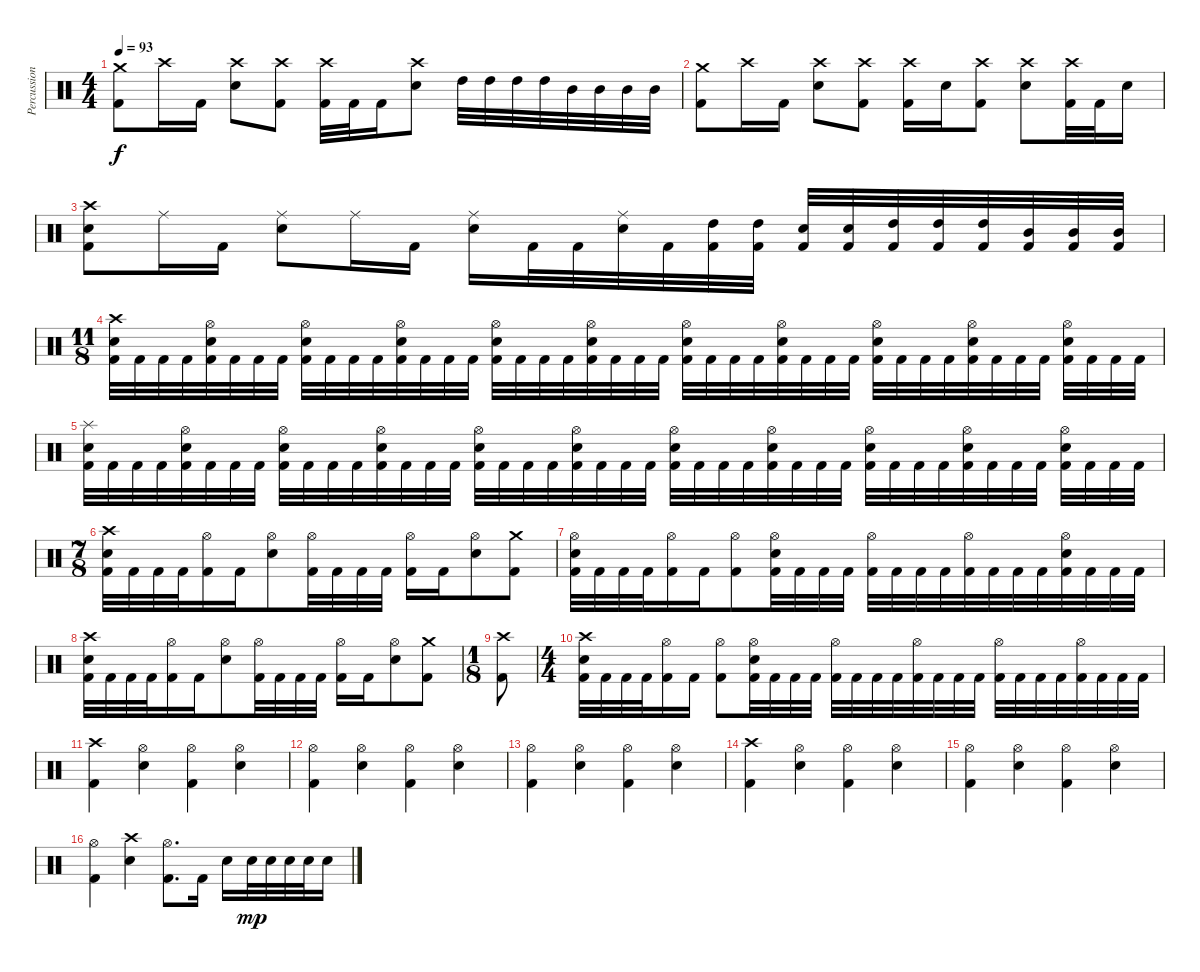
\track ("Percussions" "Percussion") {instrument percussion}
\staff {score}
\articulation defaults
\ts (4 4)
\tempo 93
\clef neutral
\ks c
("Crash medium (hit)" "Kick (hit) 2").8{dy f} "Crash high (hit)".16 "Kick (hit) 2".16 ("Crash high (hit)" "Electric Snare (hit)").8 ("Crash high (hit)" "Kick (hit) 2").8 ("Crash high (hit)" "Kick (hit) 2").32 "Kick (hit) 2".32 "Kick (hit) 2".16 ("Crash high (hit)" "Electric Snare (hit)").8 "High Tom (hit)".32 "High Tom (hit)".32 "High Tom (hit)".32 "High Tom (hit)".32 "Mid Tom (hit)".32 "Mid Tom (hit)".32 "Mid Tom (hit)".32 "Mid Tom (hit)".32 |
("Crash medium (hit)" "Kick (hit) 2").8 "Crash high (hit)".16 "Kick (hit) 2".16 ("Crash high (hit)" "Electric Snare (hit)").8 ("Crash high (hit)" "Kick (hit) 2").8 ("Crash high (hit)" "Kick (hit) 2").16 "Electric Snare (hit)".16 ("Crash high (hit)" "Kick (hit) 2").8 ("Crash high (hit)" "Electric Snare (hit)").8 ("Crash high (hit)" "Kick (hit) 2").32 "Kick (hit) 2".32 "Electric Snare (hit)".16 |
("Crash high (hit)" "Electric Snare (hit)" "Kick (hit) 2").8 "Ride (middle)".16 "Kick (hit) 2".16 ("Ride (middle)" "Electric Snare (hit)").8 "Ride (middle)".16 "Kick (hit) 2".16 ("Ride (middle)" "Electric Snare (hit)").16 "Kick (hit) 2".32 "Kick (hit) 2".32 ("Ride (middle)" "Electric Snare (hit)").32 "Kick (hit) 2".32 ("High Tom (hit)" "Kick (hit) 2").32 ("High Tom (hit)" "Kick (hit) 2").32 ("Electric Snare (hit)" "Kick (hit) 2").32 ("Electric Snare (hit)" "Kick (hit) 2").32 ("High Tom (hit)" "Kick (hit) 2").32 ("High Tom (hit)" "Kick (hit) 2").32 ("High Tom (hit)" "Kick (hit) 2").32 ("Mid Tom (hit)" "Kick (hit) 2").32 ("Mid Tom (hit)" "Kick (hit) 2").32 ("Mid Tom (hit)" "Kick (hit) 2").32 |
\ts (11 8)
("Crash high (hit)" "Electric Snare (hit)" "Kick (hit) 2").32 "Kick (hit) 2".32 "Kick (hit) 2".32 "Kick (hit) 2".32 ("Hi-Hat (open)" "Electric Snare (hit)" "Kick (hit) 2").32 "Kick (hit) 2".32 "Kick (hit) 2".32 "Kick (hit) 2".32 ("Hi-Hat (open)" "Electric Snare (hit)" "Kick (hit) 2").32 "Kick (hit) 2".32 "Kick (hit) 2".32 "Kick (hit) 2".32 ("Hi-Hat (open)" "Electric Snare (hit)" "Kick (hit) 2").32 "Kick (hit) 2".32 "Kick (hit) 2".32 "Kick (hit) 2".32 ("Hi-Hat (open)" "Electric Snare (hit)" "Kick (hit) 2").32 "Kick (hit) 2".32 "Kick (hit) 2".32 "Kick (hit) 2".32 ("Hi-Hat (open)" "Electric Snare (hit)" "Kick (hit) 2").32 "Kick (hit) 2".32 "Kick (hit) 2".32 "Kick (hit) 2".32 ("Hi-Hat (open)" "Electric Snare (hit)" "Kick (hit) 2").32 "Kick (hit) 2".32 "Kick (hit) 2".32 "Kick (hit) 2".32 ("Hi-Hat (open)" "Electric Snare (hit)" "Kick (hit) 2").32 "Kick (hit) 2".32 "Kick (hit) 2".32 "Kick (hit) 2".32 ("Hi-Hat (open)" "Electric Snare (hit)" "Kick (hit) 2").32 "Kick (hit) 2".32 "Kick (hit) 2".32 "Kick (hit) 2".32 ("Hi-Hat (open)" "Electric Snare (hit)" "Kick (hit) 2").32 "Kick (hit) 2".32 "Kick (hit) 2".32 "Kick (hit) 2".32 ("Hi-Hat (open)" "Electric Snare (hit)" "Kick (hit) 2").32 "Kick (hit) 2".32 "Kick (hit) 2".32 "Kick (hit) 2".32 |
("Splash (hit)" "Electric Snare (hit)" "Kick (hit) 2").32 "Kick (hit) 2".32 "Kick (hit) 2".32 "Kick (hit) 2".32 ("Hi-Hat (open)" "Electric Snare (hit)" "Kick (hit) 2").32 "Kick (hit) 2".32 "Kick (hit) 2".32 "Kick (hit) 2".32 ("Hi-Hat (open)" "Electric Snare (hit)" "Kick (hit) 2").32 "Kick (hit) 2".32 "Kick (hit) 2".32 "Kick (hit) 2".32 ("Hi-Hat (open)" "Electric Snare (hit)" "Kick (hit) 2").32 "Kick (hit) 2".32 "Kick (hit) 2".32 "Kick (hit) 2".32 ("Hi-Hat (open)" "Electric Snare (hit)" "Kick (hit) 2").32 "Kick (hit) 2".32 "Kick (hit) 2".32 "Kick (hit) 2".32 ("Hi-Hat (open)" "Electric Snare (hit)" "Kick (hit) 2").32 "Kick (hit) 2".32 "Kick (hit) 2".32 "Kick (hit) 2".32 ("Hi-Hat (open)" "Electric Snare (hit)" "Kick (hit) 2").32 "Kick (hit) 2".32 "Kick (hit) 2".32 "Kick (hit) 2".32 ("Hi-Hat (open)" "Electric Snare (hit)" "Kick (hit) 2").32 "Kick (hit) 2".32 "Kick (hit) 2".32 "Kick (hit) 2".32 ("Hi-Hat (open)" "Electric Snare (hit)" "Kick (hit) 2").32 "Kick (hit) 2".32 "Kick (hit) 2".32 "Kick (hit) 2".32 ("Hi-Hat (open)" "Electric Snare (hit)" "Kick (hit) 2").32 "Kick (hit) 2".32 "Kick (hit) 2".32 "Kick (hit) 2".32 ("Hi-Hat (open)" "Electric Snare (hit)" "Kick (hit) 2").32 "Kick (hit) 2".32 "Kick (hit) 2".32 "Kick (hit) 2".32 |
\ts (7 8)
("Crash high (hit)" "Electric Snare (hit)" "Kick (hit) 2").32 "Kick (hit) 2".32 "Kick (hit) 2".32 "Kick (hit) 2".32 ("Hi-Hat (open)" "Kick (hit) 2").16 "Kick (hit) 2".16 ("Hi-Hat (open)" "Electric Snare (hit)").8 ("Hi-Hat (open)" "Kick (hit) 2").32 "Kick (hit) 2".32 "Kick (hit) 2".32 "Kick (hit) 2".32 ("Hi-Hat (open)" "Kick (hit) 2").16 "Kick (hit) 2".16 ("Hi-Hat (open)" "Electric Snare (hit)").8 ("Crash medium (hit)" "Kick (hit) 2").8 |
("Hi-Hat (open)" "Electric Snare (hit)" "Kick (hit) 2").32 "Kick (hit) 2".32 "Kick (hit) 2".32 "Kick (hit) 2".32 ("Hi-Hat (open)" "Kick (hit) 2").16 "Kick (hit) 2".16 ("Hi-Hat (open)" "Kick (hit) 2").8 ("Hi-Hat (open)" "Electric Snare (hit)" "Kick (hit) 2").32 "Kick (hit) 2".32 "Kick (hit) 2".32 "Kick (hit) 2".32 ("Hi-Hat (open)" "Kick (hit) 2").32 "Kick (hit) 2".32 "Kick (hit) 2".32 "Kick (hit) 2".32 ("Hi-Hat (open)" "Kick (hit) 2").32 "Kick (hit) 2".32 "Kick (hit) 2".32 "Kick (hit) 2".32 ("Hi-Hat (open)" "Electric Snare (hit)" "Kick (hit) 2").32 "Kick (hit) 2".32 "Kick (hit) 2".32 "Kick (hit) 2".32 |
("Crash high (hit)" "Electric Snare (hit)" "Kick (hit) 2").32 "Kick (hit) 2".32 "Kick (hit) 2".32 "Kick (hit) 2".32 ("Hi-Hat (open)" "Kick (hit) 2").16 "Kick (hit) 2".16 ("Hi-Hat (open)" "Electric Snare (hit)").8 ("Hi-Hat (open)" "Kick (hit) 2").32 "Kick (hit) 2".32 "Kick (hit) 2".32 "Kick (hit) 2".32 ("Hi-Hat (open)" "Kick (hit) 2").16 "Kick (hit) 2".16 ("Hi-Hat (open)" "Electric Snare (hit)").8 ("Crash medium (hit)" "Kick (hit) 2").8 |
\ts (1 8)
("Crash high (hit)" "Kick (hit) 2").8 |
\ts (4 4)
("Crash high (hit)" "Electric Snare (hit)" "Kick (hit) 2").32 "Kick (hit) 2".32 "Kick (hit) 2".32 "Kick (hit) 2".32 ("Hi-Hat (open)" "Kick (hit) 2").16 "Kick (hit) 2".16 ("Hi-Hat (open)" "Kick (hit) 2").8 ("Hi-Hat (open)" "Electric Snare (hit)" "Kick (hit) 2").32 "Kick (hit) 2".32 "Kick (hit) 2".32 "Kick (hit) 2".32 ("Hi-Hat (open)" "Kick (hit) 2").32 "Kick (hit) 2".32 "Kick (hit) 2".32 "Kick (hit) 2".32 ("Hi-Hat (open)" "Kick (hit) 2").32 "Kick (hit) 2".32 "Kick (hit) 2".32 "Kick (hit) 2".32 ("Hi-Hat (open)" "Kick (hit) 2").32 "Kick (hit) 2".32 "Kick (hit) 2".32 "Kick (hit) 2".32 ("Hi-Hat (open)" "Kick (hit) 2").32 "Kick (hit) 2".32 "Kick (hit) 2".32 "Kick (hit) 2".32 |
("Crash high (hit)" "Kick (hit) 2").4 ("Hi-Hat (open)" "Electric Snare (hit)").4 ("Hi-Hat (open)" "Kick (hit) 2").4 ("Hi-Hat (open)" "Electric Snare (hit)").4 |
("Hi-Hat (open)" "Kick (hit) 2").4 ("Hi-Hat (open)" "Electric Snare (hit)").4 ("Hi-Hat (open)" "Kick (hit) 2").4 ("Hi-Hat (open)" "Electric Snare (hit)").4 |
("Hi-Hat (open)" "Kick (hit) 2").4 ("Hi-Hat (open)" "Electric Snare (hit)").4 ("Hi-Hat (open)" "Kick (hit) 2").4 ("Hi-Hat (open)" "Electric Snare (hit)").4 |
("Crash high (hit)" "Kick (hit) 2").4 ("Hi-Hat (open)" "Electric Snare (hit)").4 ("Hi-Hat (open)" "Kick (hit) 2").4 ("Hi-Hat (open)" "Electric Snare (hit)").4 |
("Hi-Hat (open)" "Kick (hit) 2").4 ("Hi-Hat (open)" "Electric Snare (hit)").4 ("Hi-Hat (open)" "Kick (hit) 2").4 ("Hi-Hat (open)" "Electric Snare (hit)").4 |
("Hi-Hat (open)" "Kick (hit) 2").4 ("Crash high (hit)" "Electric Snare (hit)").4 ("Hi-Hat (open)" "Kick (hit) 2").8{d} "Kick (hit) 2".16 "Electric Snare (hit)".16 "Electric Snare (hit)".32{dy mp} "Electric Snare (hit)".32 "Electric Snare (hit)".32 "Electric Snare (hit)".32 "Electric Snare (hit)".16
